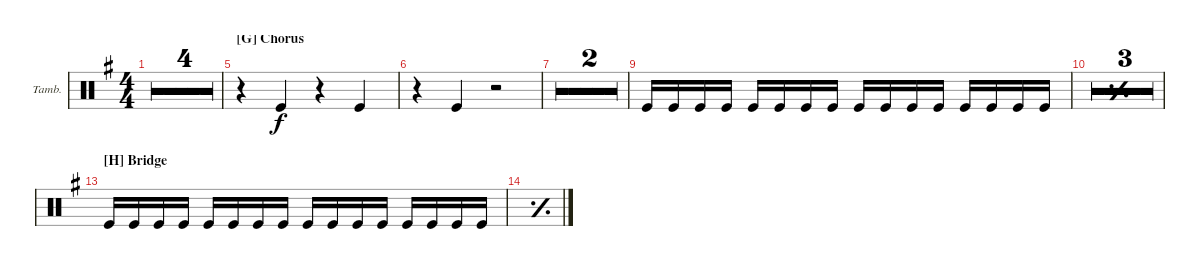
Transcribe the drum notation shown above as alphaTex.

\defaultSystemsLayout 4
\bracketExtendMode groupsimilarinstruments
\firstSystemTrackNameOrientation horizontal
\otherSystemsTrackNameOrientation horizontal
\track ("Tambourine" "Tamb.") {multiBarRest instrument percussion}
\staff {score}
\articulation defaults
\ts (4 4)
\tempo 90
\clef neutral
\ks g
r.1{dy f} |
r.1 |
r.1 |
r.1 |
\section ("G" "Chorus")
r.4 "Kick (hit)".4 r.4 "Kick (hit)".4 |
r.4 "Kick (hit)".4 r.2 |
\simile firstofdouble
|
\simile secondofdouble
|
\simile none "Kick (hit)".16 "Kick (hit)".16 "Kick (hit)".16 "Kick (hit)".16 "Kick (hit)".16 "Kick (hit)".16 "Kick (hit)".16 "Kick (hit)".16 "Kick (hit)".16 "Kick (hit)".16 "Kick (hit)".16 "Kick (hit)".16 "Kick (hit)".16 "Kick (hit)".16 "Kick (hit)".16 "Kick (hit)".16
|
\simile simple
|
|
|
\section ("H" "Bridge")
\simile none "Kick (hit)".16 "Kick (hit)".16 "Kick (hit)".16 "Kick (hit)".16 "Kick (hit)".16 "Kick (hit)".16 "Kick (hit)".16 "Kick (hit)".16 "Kick (hit)".16 "Kick (hit)".16 "Kick (hit)".16 "Kick (hit)".16 "Kick (hit)".16 "Kick (hit)".16 "Kick (hit)".16 "Kick (hit)".16
|
\simile simple
